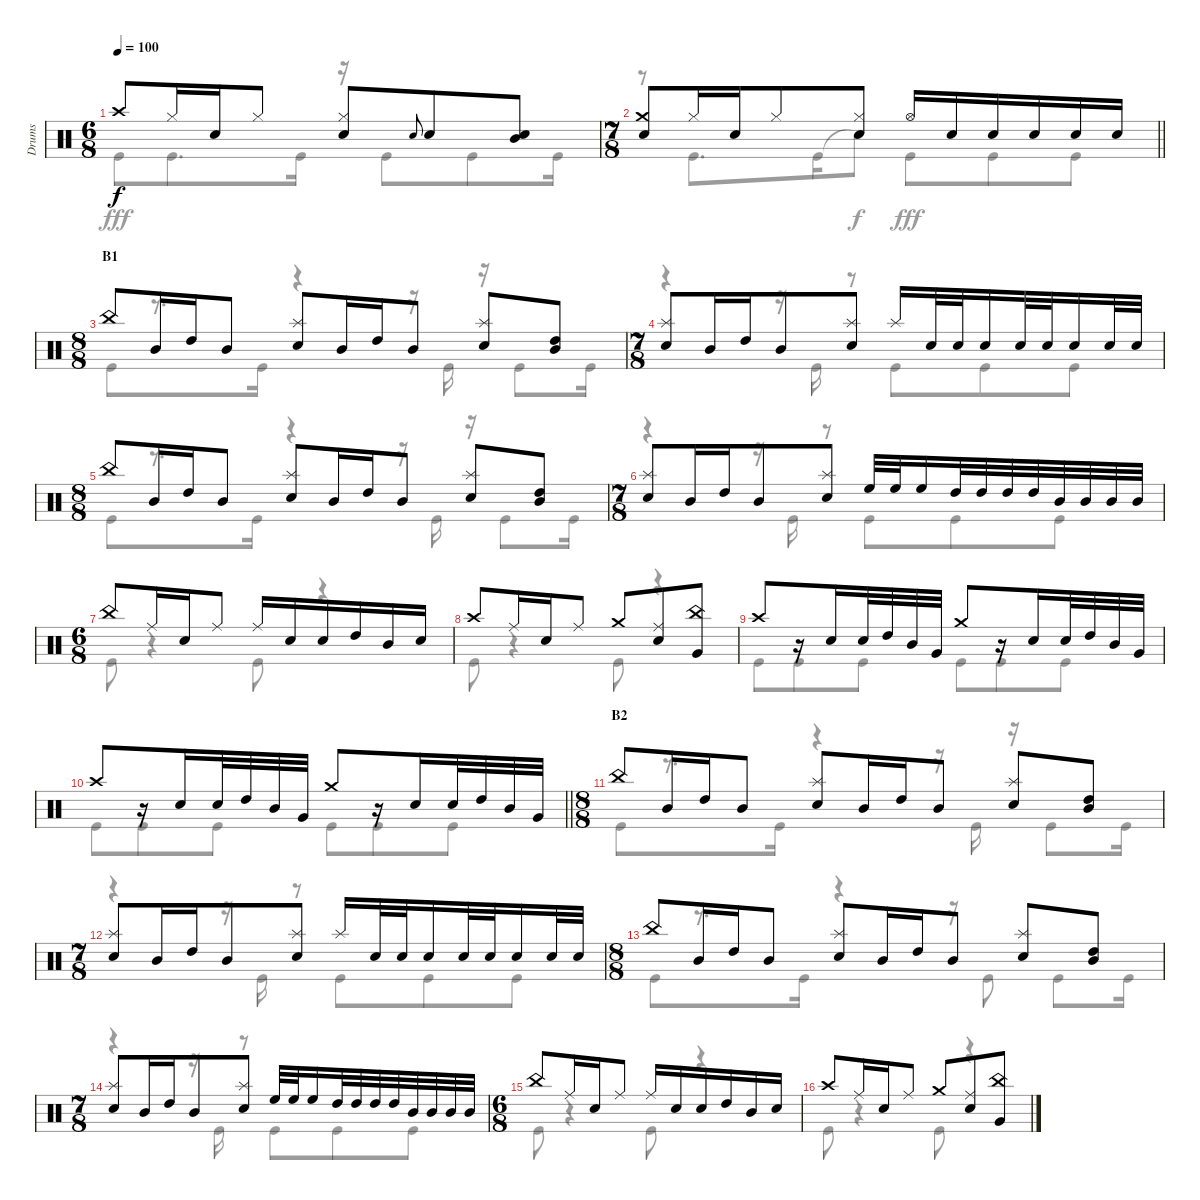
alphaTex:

\track ("Drums" "Drums") {instrument percussion}
\staff {score}
\articulation defaults
\voice
\ts (6 8)
\tempo 100
\clef neutral
\ks c "Crash high (hit)".8{dy f} "Hi-Hat (closed)".16 "Snare (hit) 2".16 "Hi-Hat (closed)".8
("Hi-Hat (closed)" "Snare (hit) 2").8 "Snare (hit) 2".8{gr onbeat} "Snare (hit) 2".8 ("Mid Tom (hit)" "Snare (hit) 2").8 |
\ts (7 8)
\barLineRight lightlight
("Crash medium (hit)" "Snare (hit) 2").8 "Hi-Hat (closed)".16 "Snare (hit) 2".16 "Hi-Hat (closed)".8 ("Hi-Hat (closed)" "Snare (hit) 2").8 "Hi-Hat (open)".16 "Snare (hit) 2".16 "Snare (hit) 2".16 "Snare (hit) 2".16 "Snare (hit) 2".16 "Snare (hit) 2".16 |
\ts (8 8)
\section ("" "B1")
"China (hit)".8 "Mid Tom (hit)".16 "High Tom (hit)".16 "Mid Tom (hit)".8 ("Splash (hit)" "Snare (hit) 2").8 "Mid Tom (hit)".16 "High Tom (hit)".16 "Mid Tom (hit)".8 ("Splash (hit)" "Snare (hit) 2").8 ("High Tom (hit)" "Mid Tom (hit)").8 |
\ts (7 8)
("Splash (hit)" "Snare (hit) 2").8 "Mid Tom (hit)".16 "High Tom (hit)".16 "Mid Tom (hit)".8 ("Splash (hit)" "Snare (hit) 2").8 "Splash (hit)".16 "Snare (hit) 2".32 "Snare (hit) 2".32 "Snare (hit) 2".16 "Snare (hit) 2".32 "Snare (hit) 2".32 "Snare (hit) 2".16 "Snare (hit) 2".32 "Snare (hit) 2".32 |
\ts (8 8)
"China (hit)".8 "Mid Tom (hit)".16 "High Tom (hit)".16 "Mid Tom (hit)".8 ("Splash (hit)" "Snare (hit) 2").8 "Mid Tom (hit)".16 "High Tom (hit)".16 "Mid Tom (hit)".8 ("Splash (hit)" "Snare (hit) 2").8 ("High Tom (hit)" "Mid Tom (hit)").8 |
\ts (7 8)
("Splash (hit)" "Snare (hit) 2").8 "Mid Tom (hit)".16 "High Tom (hit)".16 "Mid Tom (hit)".8 ("Splash (hit)" "Snare (hit) 2").8 "High Floor Tom (hit)".32 "High Floor Tom (hit)".32 "High Floor Tom (hit)".16 "High Tom (hit)".32 "High Tom (hit)".32 "High Tom (hit)".32 "High Tom (hit)".32 "Mid Tom (hit)".32 "Mid Tom (hit)".32 "Mid Tom (hit)".32 "Mid Tom (hit)".32 |
\ts (6 8)
"China (hit)".8 "Ride (middle)".16 "Snare (hit) 2".16 "Ride (middle)".8 "Ride (middle)".16 "Snare (hit) 2".16 "Snare (hit) 2".16 "High Tom (hit)".16 "Mid Tom (hit)".16 "Snare (hit) 2".16 |
"Crash high (hit)".8 "Ride (middle)".16 "Snare (hit) 2".16 "Ride (middle)".8 "Crash medium (hit)".8 ("Ride (middle)" "Snare (hit) 2").8 ("China (hit)" "Very Low Tom (hit)").8 |
"Crash high (hit)".8 r.16 "Snare (hit) 2".16 "Snare (hit) 2".32 "High Tom (hit)".32 "Mid Tom (hit)".32 "Very Low Tom (hit)".32 "Crash medium (hit)".8 r.16 "Snare (hit) 2".16 "Snare (hit) 2".32 "High Tom (hit)".32 "Mid Tom (hit)".32 "Very Low Tom (hit)".32 |
\barLineRight lightlight "Crash high (hit)".8
r.16 "Snare (hit) 2".16 "Snare (hit) 2".32 "High Tom (hit)".32 "Mid Tom (hit)".32 "Very Low Tom (hit)".32 "Crash medium (hit)".8 r.16 "Snare (hit) 2".16 "Snare (hit) 2".32 "High Tom (hit)".32 "Mid Tom (hit)".32 "Very Low Tom (hit)".32 |
\ts (8 8)
\section ("" "B2")
"China (hit)".8 "Mid Tom (hit)".16 "High Tom (hit)".16 "Mid Tom (hit)".8 ("Splash (hit)" "Snare (hit) 2").8 "Mid Tom (hit)".16 "High Tom (hit)".16 "Mid Tom (hit)".8 ("Splash (hit)" "Snare (hit) 2").8 ("High Tom (hit)" "Mid Tom (hit)").8 |
\ts (7 8)
("Splash (hit)" "Snare (hit) 2").8 "Mid Tom (hit)".16 "High Tom (hit)".16 "Mid Tom (hit)".8 ("Splash (hit)" "Snare (hit) 2").8 "Splash (hit)".16 "Snare (hit) 2".32 "Snare (hit) 2".32 "Snare (hit) 2".16 "Snare (hit) 2".32 "Snare (hit) 2".32 "Snare (hit) 2".16 "Snare (hit) 2".32 "Snare (hit) 2".32 |
\ts (8 8)
"China (hit)".8 "Mid Tom (hit)".16 "High Tom (hit)".16 "Mid Tom (hit)".8 ("Splash (hit)" "Snare (hit) 2").8 "Mid Tom (hit)".16 "High Tom (hit)".16 "Mid Tom (hit)".8 ("Splash (hit)" "Snare (hit) 2").8 ("High Tom (hit)" "Mid Tom (hit)").8 |
\ts (7 8)
("Splash (hit)" "Snare (hit) 2").8 "Mid Tom (hit)".16 "High Tom (hit)".16 "Mid Tom (hit)".8 ("Splash (hit)" "Snare (hit) 2").8 "High Floor Tom (hit)".32 "High Floor Tom (hit)".32 "High Floor Tom (hit)".16 "High Tom (hit)".32 "High Tom (hit)".32 "High Tom (hit)".32 "High Tom (hit)".32 "Mid Tom (hit)".32 "Mid Tom (hit)".32 "Mid Tom (hit)".32 "Mid Tom (hit)".32 |
\ts (6 8)
"China (hit)".8 "Ride (middle)".16 "Snare (hit) 2".16 "Ride (middle)".8 "Ride (middle)".16 "Snare (hit) 2".16 "Snare (hit) 2".16 "High Tom (hit)".16 "Mid Tom (hit)".16 "Snare (hit) 2".16 |
"Crash high (hit)".8 "Ride (middle)".16 "Snare (hit) 2".16 "Ride (middle)".8 "Crash medium (hit)".8 ("Ride (middle)" "Snare (hit) 2").8 ("China (hit)" "Very Low Tom (hit)").8
\voice
\clef neutral
\ottava regular
\simile none
\ks c "Kick (hit)".8{dy fff} "Kick (hit)".8{d} "Kick (hit)".16
r.16 "Kick (hit)".8 "Kick (hit)".8 "Kick (hit)".16 |
\barLineRight lightlight
r.8 "Kick (hit)".8{d} "Kick (hit)".16 "Snare (hit)"{t}.8{dy f} "Kick (hit)".8{dy fff} "Kick (hit)".8 "Kick (hit)".8 |
"Kick (hit)".8 r.8{d} "Kick (hit)".16 r.4 r.16 "Kick (hit)".16 r.16 "Kick (hit)".8 "Kick (hit)".16 |
r.4 r.16 "Kick (hit)".16 r.8 "Kick (hit)".8 "Kick (hit)".8 "Kick (hit)".8 |
"Kick (hit)".8 r.8{d} "Kick (hit)".16 r.4 r.16 "Kick (hit)".16 r.16 "Kick (hit)".8 "Kick (hit)".16 |
r.4 r.16 "Kick (hit)".16 r.8 "Kick (hit)".8 "Kick (hit)".8 "Kick (hit)".8 |
"Kick (hit)".8 r.4 "Kick (hit)".8 r.4 |
"Kick (hit)".8 r.4 "Kick (hit)".8 r.4 |
"Kick (hit)".8 "Kick (hit)".8 "Kick (hit)".8 "Kick (hit)".8 "Kick (hit)".8 "Kick (hit)".8 |
\barLineRight lightlight "Kick (hit)".8 "Kick (hit)".8 "Kick (hit)".8 "Kick (hit)".8 "Kick (hit)".8 "Kick (hit)".8
|
"Kick (hit)".8 r.8{d} "Kick (hit)".16 r.4 r.16 "Kick (hit)".16 r.16 "Kick (hit)".8 "Kick (hit)".16 |
r.4 r.16 "Kick (hit)".16 r.8 "Kick (hit)".8 "Kick (hit)".8 "Kick (hit)".8 |
"Kick (hit)".8 r.8{d} "Kick (hit)".16 r.4 r.16 "Kick (hit)".8 "Kick (hit)".8 "Kick (hit)".16 |
r.4 r.16 "Kick (hit)".16 r.8 "Kick (hit)".8 "Kick (hit)".8 "Kick (hit)".8 |
"Kick (hit)".8 r.4 "Kick (hit)".8 r.4 |
"Kick (hit)".8 r.4 "Kick (hit)".8 r.4
